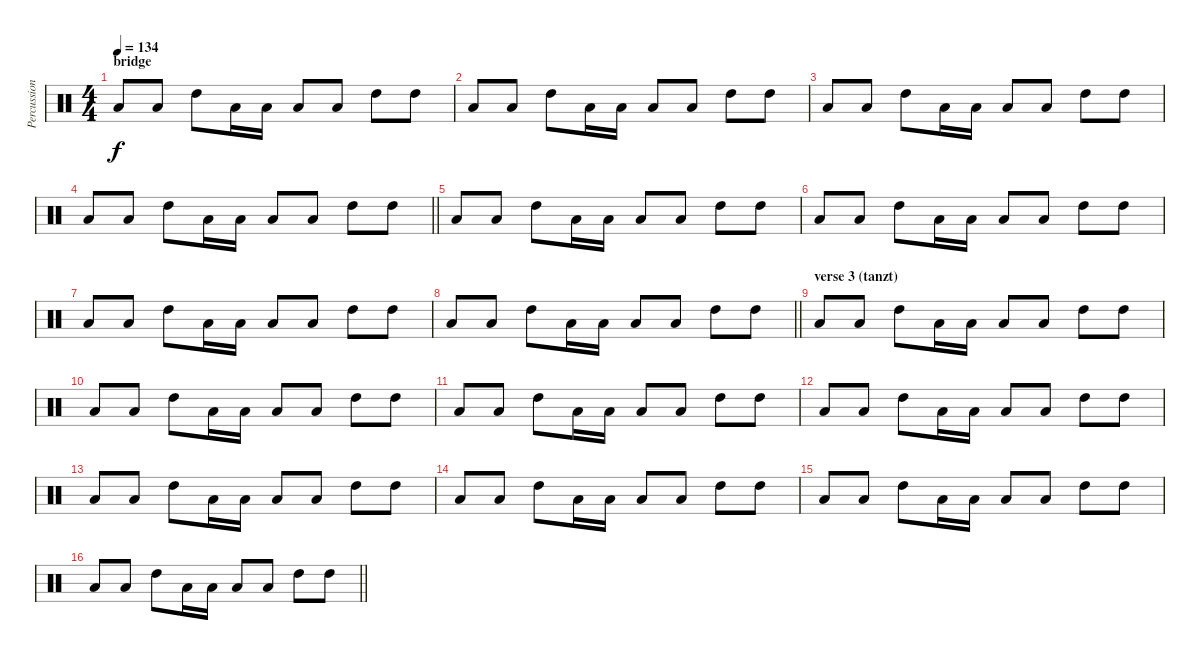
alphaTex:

\track ("Percussion" "Percussion") {instrument percussion}
\staff {score}
\articulation defaults
\ts (4 4)
\section ("" "bridge")
\tempo 134
\clef neutral
\ks c "Low Tom (hit)".8{dy f} "Low Tom (hit)".8 "High Tom (hit)".8 "Low Tom (hit)".16 "Low Tom (hit)".16 "Low Tom (hit)".8 "Low Tom (hit)".8 "High Tom (hit)".8 "High Tom (hit)".8
|
"Low Tom (hit)".8 "Low Tom (hit)".8 "High Tom (hit)".8 "Low Tom (hit)".16 "Low Tom (hit)".16 "Low Tom (hit)".8 "Low Tom (hit)".8 "High Tom (hit)".8 "High Tom (hit)".8 |
"Low Tom (hit)".8 "Low Tom (hit)".8 "High Tom (hit)".8 "Low Tom (hit)".16 "Low Tom (hit)".16 "Low Tom (hit)".8 "Low Tom (hit)".8 "High Tom (hit)".8 "High Tom (hit)".8 |
\barLineRight lightlight "Low Tom (hit)".8 "Low Tom (hit)".8 "High Tom (hit)".8 "Low Tom (hit)".16 "Low Tom (hit)".16 "Low Tom (hit)".8 "Low Tom (hit)".8 "High Tom (hit)".8 "High Tom (hit)".8
|
"Low Tom (hit)".8 "Low Tom (hit)".8 "High Tom (hit)".8 "Low Tom (hit)".16 "Low Tom (hit)".16 "Low Tom (hit)".8 "Low Tom (hit)".8 "High Tom (hit)".8 "High Tom (hit)".8 |
"Low Tom (hit)".8 "Low Tom (hit)".8 "High Tom (hit)".8 "Low Tom (hit)".16 "Low Tom (hit)".16 "Low Tom (hit)".8 "Low Tom (hit)".8 "High Tom (hit)".8 "High Tom (hit)".8 |
"Low Tom (hit)".8 "Low Tom (hit)".8 "High Tom (hit)".8 "Low Tom (hit)".16 "Low Tom (hit)".16 "Low Tom (hit)".8 "Low Tom (hit)".8 "High Tom (hit)".8 "High Tom (hit)".8 |
\barLineRight lightlight "Low Tom (hit)".8 "Low Tom (hit)".8 "High Tom (hit)".8 "Low Tom (hit)".16 "Low Tom (hit)".16 "Low Tom (hit)".8 "Low Tom (hit)".8 "High Tom (hit)".8 "High Tom (hit)".8
|
\section ("" "verse 3 (tanzt)")
"Low Tom (hit)".8 "Low Tom (hit)".8 "High Tom (hit)".8 "Low Tom (hit)".16 "Low Tom (hit)".16 "Low Tom (hit)".8 "Low Tom (hit)".8 "High Tom (hit)".8 "High Tom (hit)".8 |
"Low Tom (hit)".8 "Low Tom (hit)".8 "High Tom (hit)".8 "Low Tom (hit)".16 "Low Tom (hit)".16 "Low Tom (hit)".8 "Low Tom (hit)".8 "High Tom (hit)".8 "High Tom (hit)".8 |
"Low Tom (hit)".8 "Low Tom (hit)".8 "High Tom (hit)".8 "Low Tom (hit)".16 "Low Tom (hit)".16 "Low Tom (hit)".8 "Low Tom (hit)".8 "High Tom (hit)".8 "High Tom (hit)".8 |
"Low Tom (hit)".8 "Low Tom (hit)".8 "High Tom (hit)".8 "Low Tom (hit)".16 "Low Tom (hit)".16 "Low Tom (hit)".8 "Low Tom (hit)".8 "High Tom (hit)".8 "High Tom (hit)".8 |
"Low Tom (hit)".8 "Low Tom (hit)".8 "High Tom (hit)".8 "Low Tom (hit)".16 "Low Tom (hit)".16 "Low Tom (hit)".8 "Low Tom (hit)".8 "High Tom (hit)".8 "High Tom (hit)".8 |
"Low Tom (hit)".8 "Low Tom (hit)".8 "High Tom (hit)".8 "Low Tom (hit)".16 "Low Tom (hit)".16 "Low Tom (hit)".8 "Low Tom (hit)".8 "High Tom (hit)".8 "High Tom (hit)".8 |
"Low Tom (hit)".8 "Low Tom (hit)".8 "High Tom (hit)".8 "Low Tom (hit)".16 "Low Tom (hit)".16 "Low Tom (hit)".8 "Low Tom (hit)".8 "High Tom (hit)".8 "High Tom (hit)".8 |
\barLineRight lightlight "Low Tom (hit)".8 "Low Tom (hit)".8 "High Tom (hit)".8 "Low Tom (hit)".16 "Low Tom (hit)".16 "Low Tom (hit)".8 "Low Tom (hit)".8 "High Tom (hit)".8 "High Tom (hit)".8
